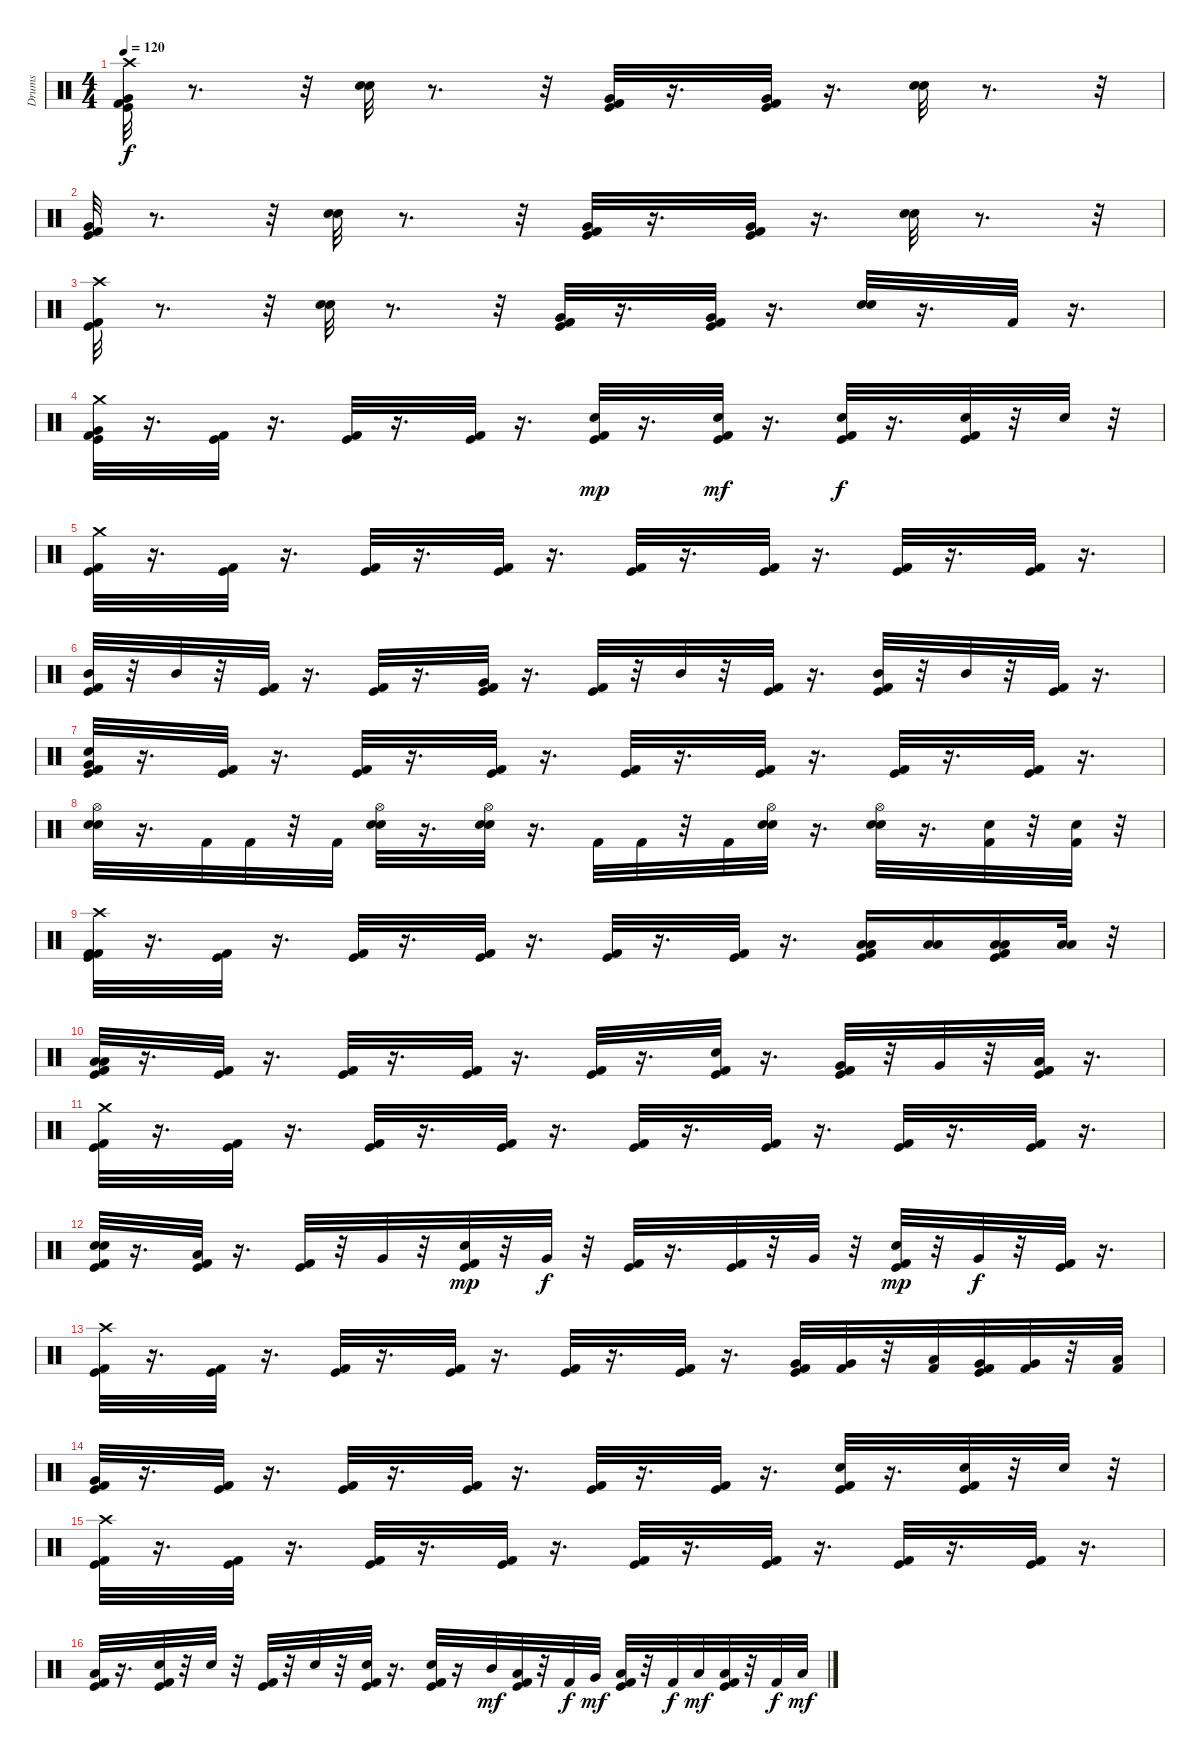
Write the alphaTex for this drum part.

\track ("Drums" "Drums") {instrument percussion}
\staff {score}
\articulation defaults
\ts (4 4)
\tempo 120
\clef neutral
\ks c
("Kick (hit)" "Kick (hit) 2" "Very Low Tom (hit)" "Crash high (hit)").32{dy f} r.8{d} r.32 ("Snare (hit) 2" "Electric Snare (hit)").32 r.8{d} r.32 ("Kick (hit) 2" "Very Low Tom (hit)" "Kick (hit)").32 r.16{d} ("Kick (hit) 2" "Very Low Tom (hit)" "Kick (hit)").32 r.16{d} ("Electric Snare (hit)" "Snare (hit) 2").32 r.8{d} r.32 |
("Kick (hit) 2" "Kick (hit)" "Very Low Tom (hit)").32 r.8{d} r.32 ("Snare (hit) 2" "Electric Snare (hit)").32 r.8{d} r.32 ("Kick (hit)" "Kick (hit) 2" "Very Low Tom (hit)").32 r.16{d} ("Kick (hit)" "Kick (hit) 2" "Very Low Tom (hit)").32 r.16{d} ("Snare (hit) 2" "Electric Snare (hit)").32 r.8{d} r.32 |
("Crash high (hit)" "Kick (hit)" "Kick (hit) 2").32 r.8{d} r.32 ("Snare (hit) 2" "Electric Snare (hit)").32 r.8{d} r.32 ("Very Low Tom (hit)" "Kick (hit)" "Kick (hit) 2").32 r.16{d} ("Very Low Tom (hit)" "Kick (hit)" "Kick (hit) 2").32 r.16{d} ("Snare (hit) 2" "Electric Snare (hit)").32 r.16{d} "Kick (hit) 2".32 r.16{d} |
("Kick (hit) 2" "Very Low Tom (hit)" "Kick (hit)" "Crash medium (hit)").32 r.16{d} ("Kick (hit)" "Kick (hit) 2").32 r.16{d} ("Kick (hit)" "Kick (hit) 2").32 r.16{d} ("Kick (hit)" "Kick (hit) 2").32 r.16{d} ("Snare (hit) 2" "Kick (hit)" "Kick (hit) 2").32{dy mp} r.16{d} ("Snare (hit) 2" "Kick (hit)" "Kick (hit) 2").32{dy mf} r.16{d} ("Kick (hit)" "Kick (hit) 2" "Snare (hit) 2").32{dy f} r.16{d} ("Kick (hit)" "Kick (hit) 2" "Snare (hit) 2").32 r.32 "Snare (hit) 2".32 r.32 |
("Kick (hit)" "Kick (hit) 2" "Crash medium (hit)").32 r.16{d} ("Kick (hit) 2" "Kick (hit)").32 r.16{d} ("Kick (hit) 2" "Kick (hit)").32 r.16{d} ("Kick (hit)" "Kick (hit) 2").32 r.16{d} ("Kick (hit)" "Kick (hit) 2").32 r.16{d} ("Kick (hit) 2" "Kick (hit)").32 r.16{d} ("Kick (hit)" "Kick (hit) 2").32 r.16{d} ("Kick (hit)" "Kick (hit) 2").32 r.16{d} |
("Kick (hit)" "Kick (hit) 2" "Mid Tom (hit)").32 r.32 "Mid Tom (hit)".32 r.32 ("Kick (hit)" "Kick (hit) 2").32 r.16{d} ("Kick (hit)" "Kick (hit) 2").32 r.16{d} ("Very Low Tom (hit)" "Kick (hit)" "Kick (hit) 2").32 r.16{d} ("Kick (hit)" "Kick (hit) 2").32 r.32 "Mid Tom (hit)".32 r.32 ("Kick (hit)" "Kick (hit) 2").32 r.16{d} ("Kick (hit)" "Kick (hit) 2" "Mid Tom (hit)").32 r.32 "Mid Tom (hit)".32 r.32 ("Kick (hit)" "Kick (hit) 2").32 r.16{d} |
("Snare (hit) 2" "Kick (hit)" "Very Low Tom (hit)" "Kick (hit) 2").32 r.16{d} ("Kick (hit)" "Kick (hit) 2").32 r.16{d} ("Kick (hit) 2" "Kick (hit)").32 r.16{d} ("Kick (hit)" "Kick (hit) 2").32 r.16{d} ("Kick (hit)" "Kick (hit) 2").32 r.16{d} ("Kick (hit) 2" "Kick (hit)").32 r.16{d} ("Kick (hit)" "Kick (hit) 2").32 r.16{d} ("Kick (hit)" "Kick (hit) 2").32 r.16{d} |
("Electric Snare (hit)" "Hi-Hat (open)" "Snare (hit) 2").32 r.16{d} "Kick (hit) 2".32 "Kick (hit) 2".32 r.32 "Kick (hit) 2".32 ("Hi-Hat (open)" "Electric Snare (hit)" "Snare (hit) 2").32 r.16{d} ("Hi-Hat (open)" "Electric Snare (hit)" "Snare (hit) 2").32 r.16{d} "Kick (hit) 2".32 "Kick (hit) 2".32 r.32 "Kick (hit) 2".32 ("Electric Snare (hit)" "Hi-Hat (open)" "Snare (hit) 2").32 r.16{d} ("Electric Snare (hit)" "Hi-Hat (open)" "Snare (hit) 2").32 r.16{d} ("Kick (hit) 2" "Electric Snare (hit)").32 r.32 ("Electric Snare (hit)" "Kick (hit) 2").32 r.32 |
("Crash high (hit)" "Kick (hit) 2" "Kick (hit)" "Kick (hit) 2").32 r.16{d} ("Kick (hit)" "Kick (hit) 2").32 r.16{d} ("Kick (hit)" "Kick (hit) 2").32 r.16{d} ("Kick (hit)" "Kick (hit) 2").32 r.16{d} ("Kick (hit)" "Kick (hit) 2").32 r.16{d} ("Kick (hit)" "Kick (hit) 2").32 r.16{d} ("Kick (hit)" "Kick (hit) 2" "Low Tom (hit)" "Low Tom (hit)").16 ("Low Tom (hit)" "Low Tom (hit)").16 ("Kick (hit) 2" "Kick (hit)" "Low Tom (hit)" "Low Tom (hit)").16 ("Low Tom (hit)" "Low Tom (hit)").32 r.32 |
("Kick (hit) 2" "Kick (hit)" "Low Tom (hit)" "Low Tom (hit)").32 r.16{d} ("Kick (hit)" "Kick (hit) 2").32 r.16{d} ("Kick (hit) 2" "Kick (hit)").32 r.16{d} ("Kick (hit) 2" "Kick (hit)").32 r.16{d} ("Kick (hit)" "Kick (hit) 2").32 r.16{d} ("Snare (hit) 2" "Kick (hit)" "Kick (hit) 2").32 r.16{d} ("Very Low Tom (hit)" "Kick (hit) 2" "Kick (hit)").32 r.32 "Very Low Tom (hit)".32 r.32 ("Low Floor Tom (hit)" "Kick (hit)" "Kick (hit) 2").32 r.16{d} |
("Crash medium (hit)" "Kick (hit)" "Kick (hit) 2").32 r.16{d} ("Kick (hit) 2" "Kick (hit)").32 r.16{d} ("Kick (hit)" "Kick (hit) 2").32 r.16{d} ("Kick (hit)" "Kick (hit) 2").32 r.16{d} ("Kick (hit) 2" "Kick (hit)").32 r.16{d} ("Kick (hit)" "Kick (hit) 2").32 r.16{d} ("Kick (hit)" "Kick (hit) 2").32 r.16{d} ("Kick (hit) 2" "Kick (hit)").32 r.16{d} |
("Electric Snare (hit)" "Snare (hit) 2" "Kick (hit)" "Kick (hit) 2").32 r.16{d} ("Low Tom (hit)" "Kick (hit)" "Kick (hit) 2").32 r.16{d} ("Kick (hit) 2" "Kick (hit)").32 r.32 "Very Low Tom (hit)".32 r.32 ("Kick (hit)" "Electric Snare (hit)" "Kick (hit) 2").32{dy mp} r.32 "Very Low Tom (hit)".32{dy f} r.32 ("Kick (hit) 2" "Kick (hit)").32 r.16{d} ("Kick (hit) 2" "Kick (hit)").32 r.32 "Very Low Tom (hit)".32 r.32 ("Kick (hit)" "Electric Snare (hit)" "Kick (hit) 2").32{dy mp} r.32 "Very Low Tom (hit)".32{dy f} r.32 ("Kick (hit)" "Kick (hit) 2").32 r.16{d} |
("Kick (hit)" "Crash high (hit)" "Kick (hit) 2").32 r.16{d} ("Kick (hit)" "Kick (hit) 2").32 r.16{d} ("Kick (hit) 2" "Kick (hit)").32 r.16{d} ("Kick (hit)" "Kick (hit) 2").32 r.16{d} ("Kick (hit) 2" "Kick (hit)").32 r.16{d} ("Kick (hit)" "Kick (hit) 2").32 r.16{d} ("Kick (hit)" "Kick (hit) 2" "Very Low Tom (hit)").32 ("Very Low Tom (hit)" "Kick (hit) 2").32 r.32 ("Low Tom (hit)" "Kick (hit) 2").32 ("Kick (hit) 2" "Very Low Tom (hit)" "Kick (hit)").32 ("Kick (hit) 2" "Very Low Tom (hit)").32 r.32 ("Low Tom (hit)" "Kick (hit) 2").32 |
("Very Low Tom (hit)" "Kick (hit)" "Kick (hit) 2").32 r.16{d} ("Kick (hit)" "Kick (hit) 2").32 r.16{d} ("Kick (hit)" "Kick (hit) 2").32 r.16{d} ("Kick (hit)" "Kick (hit) 2").32 r.16{d} ("Kick (hit)" "Kick (hit) 2").32 r.16{d} ("Kick (hit) 2" "Kick (hit)").32 r.16{d} ("Kick (hit)" "Kick (hit) 2" "Electric Snare (hit)").32 r.16{d} ("Kick (hit) 2" "Electric Snare (hit)" "Kick (hit)").32 r.32 "Electric Snare (hit)".32 r.32 |
("Crash high (hit)" "Kick (hit)" "Kick (hit) 2").32 r.16{d} ("Kick (hit)" "Kick (hit) 2").32 r.16{d} ("Kick (hit) 2" "Kick (hit)").32 r.16{d} ("Kick (hit)" "Kick (hit) 2").32 r.16{d} ("Kick (hit)" "Kick (hit) 2").32 r.16{d} ("Kick (hit)" "Kick (hit) 2").32 r.16{d} ("Kick (hit)" "Kick (hit) 2").32 r.16{d} ("Kick (hit)" "Kick (hit) 2").32 r.16{d} |
("Kick (hit)" "Kick (hit) 2" "Low Floor Tom (hit)").32 r.16{d} ("Snare (hit) 2" "Kick (hit) 2" "Kick (hit)").32 r.32 "Snare (hit) 2".32 r.32 ("Kick (hit) 2" "Kick (hit)").32 r.32 "Snare (hit) 2".32 r.32 ("Kick (hit) 2" "Snare (hit) 2" "Kick (hit)").32 r.16{d} ("Kick (hit) 2" "Kick (hit)" "Snare (hit) 2").32 r.16 "Mid Tom (hit)".32{dy mf} ("Low Tom (hit)" "Kick (hit)" "Kick (hit) 2").32 r.32 "Kick (hit) 2".32{dy f} "Very Low Tom (hit)".32{dy mf} ("Kick (hit) 2" "Low Floor Tom (hit)" "Kick (hit)").32 r.32 "Kick (hit) 2".32{dy f} "Low Floor Tom (hit)".32{dy mf} ("Low Floor Tom (hit)" "Kick (hit)" "Kick (hit) 2").32 r.32 "Kick (hit) 2".32{dy f} "Low Floor Tom (hit)".32{dy mf}
